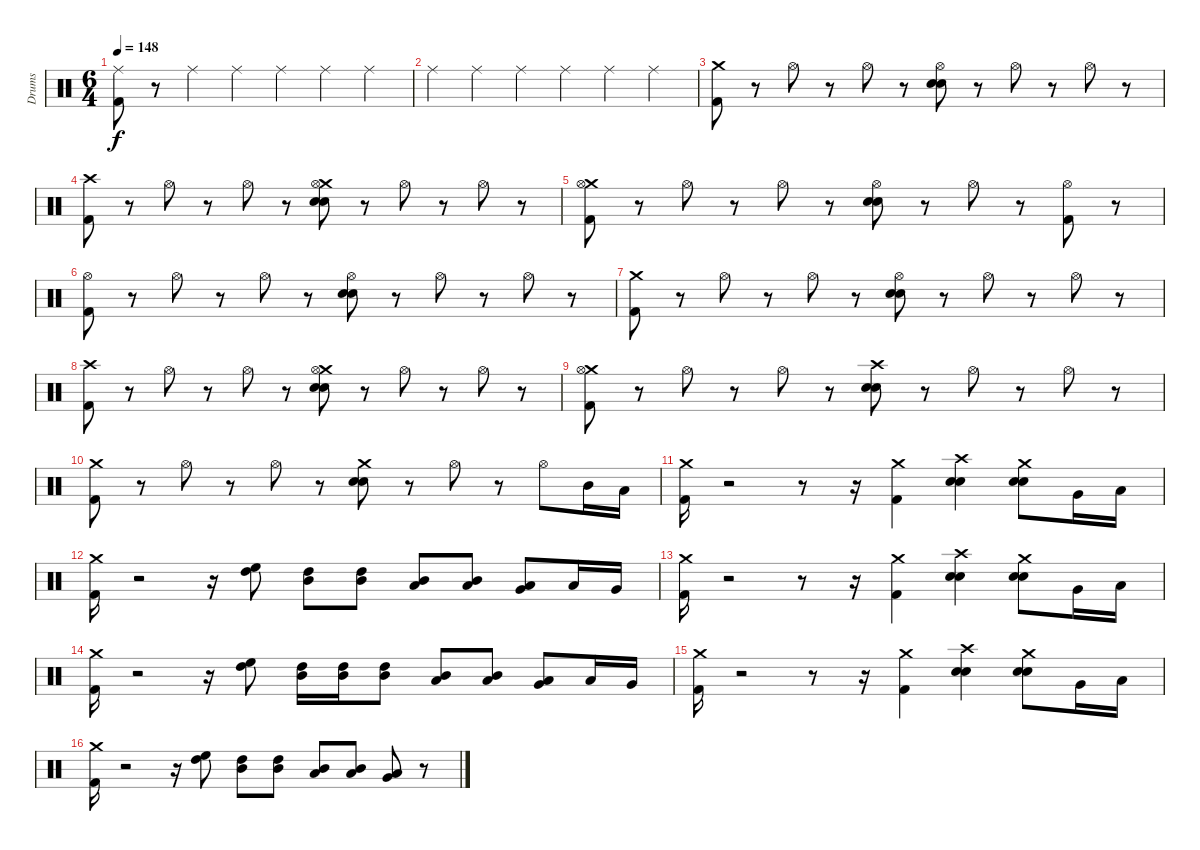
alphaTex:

\track ("Drums" "Drums") {instrument percussion}
\staff {score}
\articulation defaults
\ts (6 4)
\tempo 148
\clef neutral
\ks c
("Kick (hit) 2" "Ride (middle)").8{dy f} r.8 "Ride (middle)".4 "Ride (middle)".4 "Ride (middle)".4 "Ride (middle)".4 "Ride (middle)".4 |
"Ride (middle)".4 "Ride (middle)".4 "Ride (middle)".4 "Ride (middle)".4 "Ride (middle)".4 "Ride (middle)".4 |
("Crash medium (hit)" "Kick (hit) 2").8 r.8 "Hi-Hat (open)".8 r.8 "Hi-Hat (open)".8 r.8 ("Hi-Hat (open)" "Snare (hit) 2" "Electric Snare (hit)").8 r.8 "Hi-Hat (open)".8 r.8 "Hi-Hat (open)".8 r.8 |
("Crash high (hit)" "Kick (hit) 2").8 r.8 "Hi-Hat (open)".8 r.8 "Hi-Hat (open)".8 r.8 ("Crash medium (hit)" "Snare (hit) 2" "Electric Snare (hit)" "Hi-Hat (open)").8 r.8 "Hi-Hat (open)".8 r.8 "Hi-Hat (open)".8 r.8 |
("Crash medium (hit)" "Kick (hit) 2" "Hi-Hat (open)").8 r.8 "Hi-Hat (open)".8 r.8 "Hi-Hat (open)".8 r.8 ("Snare (hit) 2" "Electric Snare (hit)" "Hi-Hat (open)").8 r.8 "Hi-Hat (open)".8 r.8 ("Kick (hit) 2" "Hi-Hat (open)").8 r.8 |
("Kick (hit) 2" "Hi-Hat (open)").8 r.8 "Hi-Hat (open)".8 r.8 "Hi-Hat (open)".8 r.8 ("Snare (hit) 2" "Electric Snare (hit)" "Hi-Hat (open)").8 r.8 "Hi-Hat (open)".8 r.8 "Hi-Hat (open)".8 r.8 |
("Crash medium (hit)" "Kick (hit) 2").8 r.8 "Hi-Hat (open)".8 r.8 "Hi-Hat (open)".8 r.8 ("Hi-Hat (open)" "Snare (hit) 2" "Electric Snare (hit)").8 r.8 "Hi-Hat (open)".8 r.8 "Hi-Hat (open)".8 r.8 |
("Crash high (hit)" "Kick (hit) 2").8 r.8 "Hi-Hat (open)".8 r.8 "Hi-Hat (open)".8 r.8 ("Crash medium (hit)" "Snare (hit) 2" "Electric Snare (hit)" "Hi-Hat (open)").8 r.8 "Hi-Hat (open)".8 r.8 "Hi-Hat (open)".8 r.8 |
("Crash medium (hit)" "Kick (hit) 2" "Hi-Hat (open)").8 r.8 "Hi-Hat (open)".8 r.8 "Hi-Hat (open)".8 r.8 ("Snare (hit) 2" "Electric Snare (hit)" "Crash high (hit)").8 r.8 "Hi-Hat (open)".8 r.8 "Hi-Hat (open)".8 r.8 |
("Kick (hit) 2" "Crash medium (hit)").8 r.8 "Hi-Hat (open)".8 r.8 "Hi-Hat (open)".8 r.8 ("Snare (hit) 2" "Electric Snare (hit)" "Crash medium (hit)").8 r.8 "Hi-Hat (open)".8 r.8 "Hi-Hat (open)".8 "Mid Tom (hit)".16 "Low Tom (hit)".16 |
("Crash medium (hit)" "Kick (hit) 2").16 r.2 r.8 r.16 ("Crash medium (hit)" "Kick (hit) 2").4 ("Electric Snare (hit)" "Crash high (hit)" "Snare (hit) 2").4 ("Electric Snare (hit)" "Crash medium (hit)" "Snare (hit) 2").8 "Very Low Tom (hit)".16 "Low Floor Tom (hit)".16 |
("Crash medium (hit)" "Kick (hit) 2").16 r.2 r.16 ("High Tom (hit)" "High Floor Tom (hit)").8 ("Mid Tom (hit)" "High Tom (hit)").8 ("High Tom (hit)" "Mid Tom (hit)").8 ("Mid Tom (hit)" "Low Tom (hit)").8 ("Mid Tom (hit)" "Low Tom (hit)").8 ("Low Tom (hit)" "Very Low Tom (hit)").8 "Low Tom (hit)".16 "Very Low Tom (hit)".16 |
("Crash medium (hit)" "Kick (hit) 2").16 r.2 r.8 r.16 ("Crash medium (hit)" "Kick (hit) 2").4 ("Electric Snare (hit)" "Crash high (hit)" "Snare (hit) 2").4 ("Electric Snare (hit)" "Crash medium (hit)" "Snare (hit) 2").8 "Very Low Tom (hit)".16 "Low Floor Tom (hit)".16 |
("Crash medium (hit)" "Kick (hit) 2").16 r.2 r.16 ("High Tom (hit)" "High Floor Tom (hit)").8 ("Mid Tom (hit)" "High Tom (hit)").16 ("Mid Tom (hit)" "High Tom (hit)").16 ("High Tom (hit)" "Mid Tom (hit)").8 ("Mid Tom (hit)" "Low Tom (hit)").8 ("Mid Tom (hit)" "Low Tom (hit)").8 ("Low Tom (hit)" "Very Low Tom (hit)").8 "Low Tom (hit)".16 "Very Low Tom (hit)".16 |
("Crash medium (hit)" "Kick (hit) 2").16 r.2 r.8 r.16 ("Crash medium (hit)" "Kick (hit) 2").4 ("Electric Snare (hit)" "Crash high (hit)" "Snare (hit) 2").4 ("Electric Snare (hit)" "Crash medium (hit)" "Snare (hit) 2").8 "Very Low Tom (hit)".16 "Low Floor Tom (hit)".16 |
("Crash medium (hit)" "Kick (hit) 2").16 r.2 r.16 ("High Tom (hit)" "High Floor Tom (hit)").8 ("Mid Tom (hit)" "High Tom (hit)").8 ("High Tom (hit)" "Mid Tom (hit)").8 ("Mid Tom (hit)" "Low Tom (hit)").8 ("Mid Tom (hit)" "Low Tom (hit)").8 ("Low Tom (hit)" "Very Low Tom (hit)").8 r.8
